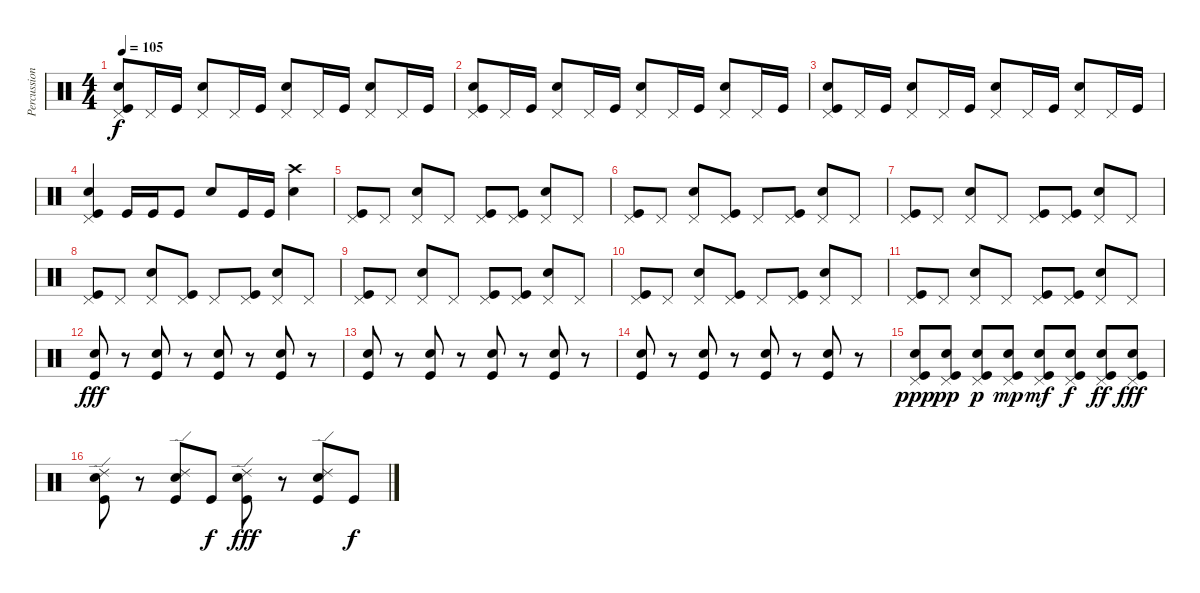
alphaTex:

\track ("Percussion" "Percussion") {instrument percussion bank 255}
\staff {score}
\articulation defaults
\ts (4 4)
\tempo 105
\clef neutral
\ks c
("Pedal Hi-Hat (hit)" "Snare (hit) 2" "Kick (hit)").8{dy f} "Pedal Hi-Hat (hit)".16 "Kick (hit)".16 ("Pedal Hi-Hat (hit)" "Snare (hit) 2").8 "Pedal Hi-Hat (hit)".16 "Kick (hit)".16 ("Pedal Hi-Hat (hit)" "Snare (hit) 2").8 "Pedal Hi-Hat (hit)".16 "Kick (hit)".16 ("Pedal Hi-Hat (hit)" "Snare (hit) 2").8 "Pedal Hi-Hat (hit)".16 "Kick (hit)".16 |
("Pedal Hi-Hat (hit)" "Snare (hit) 2" "Kick (hit)").8 "Pedal Hi-Hat (hit)".16 "Kick (hit)".16 ("Pedal Hi-Hat (hit)" "Snare (hit) 2").8 "Pedal Hi-Hat (hit)".16 "Kick (hit)".16 ("Pedal Hi-Hat (hit)" "Snare (hit) 2").8 "Pedal Hi-Hat (hit)".16 "Kick (hit)".16 ("Pedal Hi-Hat (hit)" "Snare (hit) 2").8 "Pedal Hi-Hat (hit)".16 "Kick (hit)".16 |
("Pedal Hi-Hat (hit)" "Snare (hit) 2" "Kick (hit)").8 "Pedal Hi-Hat (hit)".16 "Kick (hit)".16 ("Pedal Hi-Hat (hit)" "Snare (hit) 2").8 "Pedal Hi-Hat (hit)".16 "Kick (hit)".16 ("Pedal Hi-Hat (hit)" "Snare (hit) 2").8 "Pedal Hi-Hat (hit)".16 "Kick (hit)".16 ("Pedal Hi-Hat (hit)" "Snare (hit) 2").8 "Pedal Hi-Hat (hit)".16 "Kick (hit)".16 |
("Pedal Hi-Hat (hit)" "Snare (hit) 2" "Kick (hit)").4 "Kick (hit)".16 "Kick (hit)".16 "Kick (hit)".8 "Snare (hit) 2".8 "Kick (hit)".16 "Kick (hit)".16 ("Crash high (hit)" "Snare (hit) 2").4 |
("Pedal Hi-Hat (hit)" "Kick (hit)").8 "Pedal Hi-Hat (hit)".8 ("Pedal Hi-Hat (hit)" "Snare (hit) 2").8 "Pedal Hi-Hat (hit)".8 ("Pedal Hi-Hat (hit)" "Kick (hit)").8 ("Pedal Hi-Hat (hit)" "Kick (hit)").8 ("Pedal Hi-Hat (hit)" "Snare (hit) 2").8 "Pedal Hi-Hat (hit)".8 |
("Pedal Hi-Hat (hit)" "Kick (hit)").8 "Pedal Hi-Hat (hit)".8 ("Pedal Hi-Hat (hit)" "Snare (hit) 2").8 ("Pedal Hi-Hat (hit)" "Kick (hit)").8 "Pedal Hi-Hat (hit)".8 ("Pedal Hi-Hat (hit)" "Kick (hit)").8 ("Pedal Hi-Hat (hit)" "Snare (hit) 2").8 "Pedal Hi-Hat (hit)".8 |
("Pedal Hi-Hat (hit)" "Kick (hit)").8 "Pedal Hi-Hat (hit)".8 ("Pedal Hi-Hat (hit)" "Snare (hit) 2").8 "Pedal Hi-Hat (hit)".8 ("Pedal Hi-Hat (hit)" "Kick (hit)").8 ("Pedal Hi-Hat (hit)" "Kick (hit)").8 ("Pedal Hi-Hat (hit)" "Snare (hit) 2").8 "Pedal Hi-Hat (hit)".8 |
("Pedal Hi-Hat (hit)" "Kick (hit)").8 "Pedal Hi-Hat (hit)".8 ("Pedal Hi-Hat (hit)" "Snare (hit) 2").8 ("Pedal Hi-Hat (hit)" "Kick (hit)").8 "Pedal Hi-Hat (hit)".8 ("Pedal Hi-Hat (hit)" "Kick (hit)").8 ("Pedal Hi-Hat (hit)" "Snare (hit) 2").8 "Pedal Hi-Hat (hit)".8 |
("Pedal Hi-Hat (hit)" "Kick (hit)").8 "Pedal Hi-Hat (hit)".8 ("Pedal Hi-Hat (hit)" "Snare (hit) 2").8 "Pedal Hi-Hat (hit)".8 ("Pedal Hi-Hat (hit)" "Kick (hit)").8 ("Pedal Hi-Hat (hit)" "Kick (hit)").8 ("Pedal Hi-Hat (hit)" "Snare (hit) 2").8 "Pedal Hi-Hat (hit)".8 |
("Pedal Hi-Hat (hit)" "Kick (hit)").8 "Pedal Hi-Hat (hit)".8 ("Pedal Hi-Hat (hit)" "Snare (hit) 2").8 ("Pedal Hi-Hat (hit)" "Kick (hit)").8 "Pedal Hi-Hat (hit)".8 ("Pedal Hi-Hat (hit)" "Kick (hit)").8 ("Pedal Hi-Hat (hit)" "Snare (hit) 2").8 "Pedal Hi-Hat (hit)".8 |
("Pedal Hi-Hat (hit)" "Kick (hit)").8 "Pedal Hi-Hat (hit)".8 ("Pedal Hi-Hat (hit)" "Snare (hit) 2").8 "Pedal Hi-Hat (hit)".8 ("Pedal Hi-Hat (hit)" "Kick (hit)").8 ("Pedal Hi-Hat (hit)" "Kick (hit)").8 ("Pedal Hi-Hat (hit)" "Snare (hit) 2").8 "Pedal Hi-Hat (hit)".8 |
("Snare (hit) 2" "Kick (hit)").8{dy fff} r.8 ("Snare (hit) 2" "Kick (hit)").8 r.8 ("Snare (hit) 2" "Kick (hit)").8 r.8 ("Snare (hit) 2" "Kick (hit)").8 r.8 |
("Snare (hit) 2" "Kick (hit)").8 r.8 ("Snare (hit) 2" "Kick (hit)").8 r.8 ("Snare (hit) 2" "Kick (hit)").8 r.8 ("Snare (hit) 2" "Kick (hit)").8 r.8 |
("Snare (hit) 2" "Kick (hit)").8 r.8 ("Snare (hit) 2" "Kick (hit)").8 r.8 ("Snare (hit) 2" "Kick (hit)").8 r.8 ("Snare (hit) 2" "Kick (hit)").8 r.8 |
("Pedal Hi-Hat (hit)" "Snare (hit) 2" "Kick (hit)").8{dy ppp} ("Pedal Hi-Hat (hit)" "Snare (hit) 2" "Kick (hit)").8{dy pp} ("Pedal Hi-Hat (hit)" "Snare (hit) 2" "Kick (hit)").8{dy p} ("Pedal Hi-Hat (hit)" "Snare (hit) 2" "Kick (hit)").8{dy mp} ("Pedal Hi-Hat (hit)" "Snare (hit) 2" "Kick (hit)").8{dy mf} ("Pedal Hi-Hat (hit)" "Snare (hit) 2" "Kick (hit)").8{dy f} ("Pedal Hi-Hat (hit)" "Snare (hit) 2" "Kick (hit)").8{dy ff} ("Pedal Hi-Hat (hit)" "Snare (hit) 2" "Kick (hit)").8{dy fff} |
("Ride (edge) 2" "Snare (hit) 2" "Kick (hit)").8 r.8 ("Ride (edge) 2" "Snare (hit) 2" "Kick (hit)").8 "Kick (hit)".8{dy f} ("Ride (edge) 2" "Snare (hit) 2" "Kick (hit)").8{dy fff} r.8 ("Ride (edge) 2" "Snare (hit) 2" "Kick (hit)").8 "Kick (hit)".8{dy f}
